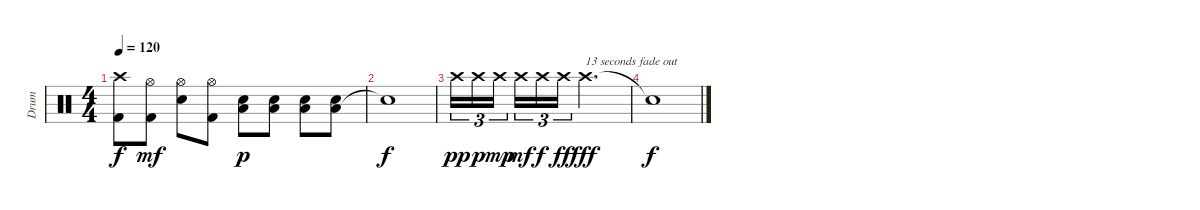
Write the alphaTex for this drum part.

\track ("Drum" "Drum") {instrument percussion}
\staff {score}
\articulation defaults
\ts (4 4)
\tempo 120
\clef neutral
\ks c
("Crash high (hit)" "Kick (hit) 2").8{dy f} ("Hi-Hat (open)" "Kick (hit) 2").8{dy mf} ("Hi-Hat (open)" "Snare (hit) 2").8 ("Hi-Hat (open)" "Kick (hit) 2").8 ("Low Floor Tom (hit)" "Snare (hit) 2").8{dy p} ("Low Floor Tom (hit)" "Snare (hit) 2").8 ("Low Floor Tom (hit)" "Snare (hit) 2").8 ("Low Floor Tom (hit)" "Snare (hit) 2").8 |
"Snare (hit)"{t}.1{dy f} |
"Crash high (hit)".16{tu (3 2) dy pp} "Crash high (hit)".16{tu (3 2) dy p} "Crash high (hit)".16{tu (3 2) dy mp beam splitsecondary} "Crash high (hit)".16{tu (3 2) dy mf} "Crash high (hit)".16{tu (3 2) dy f} "Crash high (hit)".16{tu (3 2) dy ff} "Crash high (hit)".2{d txt "13 seconds fade out" dy fff} |
"Snare (hit)"{t}.1{dy f}
